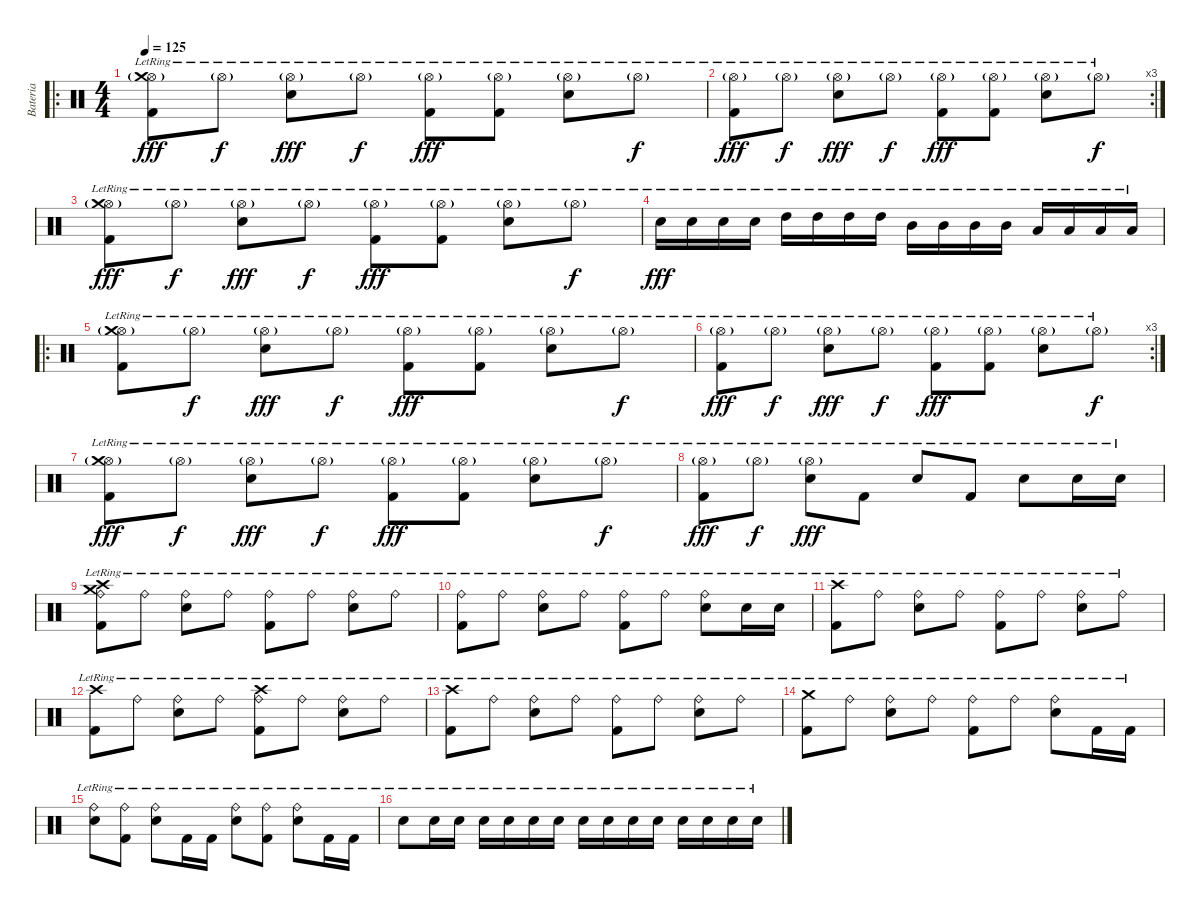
\track ("Bateria" "Bateria") {instrument percussion}
\staff {score}
\articulation defaults
\ro
\ts (4 4)
\tempo 125
\clef neutral
\ks c
("Hi-Hat (open)"{g lr} "Kick (hit) 2"{lr} "Crash medium (hit)"{lr}).8{dy fff} "Hi-Hat (open)"{g lr}.8{dy f} ("Hi-Hat (open)"{g lr} "Snare (hit) 2"{lr}).8{dy fff} "Hi-Hat (open)"{g lr}.8{dy f} ("Hi-Hat (open)"{g lr} "Kick (hit) 2"{lr}).8{dy fff} ("Hi-Hat (open)"{g lr} "Kick (hit) 2"{lr}).8 ("Hi-Hat (open)"{g lr} "Snare (hit) 2"{lr}).8 "Hi-Hat (open)"{g lr}.8{dy f} |
\rc 3
("Hi-Hat (open)"{g lr} "Kick (hit) 2"{lr}).8{dy fff} "Hi-Hat (open)"{g lr}.8{dy f} ("Hi-Hat (open)"{g lr} "Snare (hit) 2"{lr}).8{dy fff} "Hi-Hat (open)"{g lr}.8{dy f} ("Hi-Hat (open)"{g lr} "Kick (hit) 2"{lr}).8{dy fff} ("Hi-Hat (open)"{g lr} "Kick (hit) 2"{lr}).8 ("Hi-Hat (open)"{g lr} "Snare (hit) 2"{lr}).8 "Hi-Hat (open)"{g lr}.8{dy f} |
("Hi-Hat (open)"{g lr} "Kick (hit) 2"{lr} "Crash medium (hit)"{lr}).8{dy fff} "Hi-Hat (open)"{g lr}.8{dy f} ("Hi-Hat (open)"{g lr} "Snare (hit) 2"{lr}).8{dy fff} "Hi-Hat (open)"{g lr}.8{dy f} ("Hi-Hat (open)"{g lr} "Kick (hit) 2"{lr}).8{dy fff} ("Hi-Hat (open)"{g lr} "Kick (hit) 2"{lr}).8 ("Hi-Hat (open)"{g lr} "Snare (hit) 2"{lr}).8 "Hi-Hat (open)"{g lr}.8{dy f} |
"Snare (hit) 2"{lr}.16{dy fff} "Snare (hit) 2"{lr}.16 "Snare (hit) 2"{lr}.16 "Snare (hit) 2"{lr}.16 "High Tom (hit)"{lr}.16 "High Tom (hit)"{lr}.16 "High Tom (hit)"{lr}.16 "High Tom (hit)"{lr}.16 "Mid Tom (hit)"{lr}.16 "Mid Tom (hit)"{lr}.16 "Mid Tom (hit)"{lr}.16 "Mid Tom (hit)"{lr}.16 "Low Tom (hit)"{lr}.16 "Low Tom (hit)"{lr}.16 "Low Tom (hit)"{lr}.16 "Low Tom (hit)"{lr}.16 |
\ro
("Hi-Hat (open)"{g lr} "Kick (hit) 2"{lr} "Crash medium (hit)"{lr}).8 "Hi-Hat (open)"{g lr}.8{dy f} ("Hi-Hat (open)"{g lr} "Snare (hit) 2"{lr}).8{dy fff} "Hi-Hat (open)"{g lr}.8{dy f} ("Hi-Hat (open)"{g lr} "Kick (hit) 2"{lr}).8{dy fff} ("Hi-Hat (open)"{g lr} "Kick (hit) 2"{lr}).8 ("Hi-Hat (open)"{g lr} "Snare (hit) 2"{lr}).8 "Hi-Hat (open)"{g lr}.8{dy f} |
\rc 3
("Hi-Hat (open)"{g lr} "Kick (hit) 2"{lr}).8{dy fff} "Hi-Hat (open)"{g lr}.8{dy f} ("Hi-Hat (open)"{g lr} "Snare (hit) 2"{lr}).8{dy fff} "Hi-Hat (open)"{g lr}.8{dy f} ("Hi-Hat (open)"{g lr} "Kick (hit) 2"{lr}).8{dy fff} ("Hi-Hat (open)"{g lr} "Kick (hit) 2"{lr}).8 ("Hi-Hat (open)"{g lr} "Snare (hit) 2"{lr}).8 "Hi-Hat (open)"{g lr}.8{dy f} |
("Hi-Hat (open)"{g lr} "Kick (hit) 2"{lr} "Crash medium (hit)"{lr}).8{dy fff} "Hi-Hat (open)"{g lr}.8{dy f} ("Hi-Hat (open)"{g lr} "Snare (hit) 2"{lr}).8{dy fff} "Hi-Hat (open)"{g lr}.8{dy f} ("Hi-Hat (open)"{g lr} "Kick (hit) 2"{lr}).8{dy fff} ("Hi-Hat (open)"{g lr} "Kick (hit) 2"{lr}).8 ("Hi-Hat (open)"{g lr} "Snare (hit) 2"{lr}).8 "Hi-Hat (open)"{g lr}.8{dy f} |
("Hi-Hat (open)"{g lr} "Kick (hit) 2"{lr}).8{dy fff} "Hi-Hat (open)"{g lr}.8{dy f} ("Hi-Hat (open)"{g lr} "Snare (hit) 2"{lr}).8{dy fff} "Kick (hit) 2"{lr}.8 "Snare (hit) 2"{lr}.8 "Kick (hit) 2"{lr}.8 "Snare (hit) 2"{lr}.8 "Snare (hit) 2"{lr}.16 "Snare (hit) 2"{lr}.16 |
("Ride (bell)"{lr} "Kick (hit) 2"{lr} "Crash medium (hit)"{lr} "Crash high (hit)"{lr}).8 "Ride (bell)"{lr}.8 ("Ride (bell)"{lr} "Snare (hit) 2"{lr}).8 "Ride (bell)"{lr}.8 ("Ride (bell)"{lr} "Kick (hit) 2"{lr}).8 "Ride (bell)"{lr}.8 ("Ride (bell)"{lr} "Snare (hit) 2"{lr}).8 "Ride (bell)"{lr}.8 |
("Ride (bell)"{lr} "Kick (hit) 2"{lr}).8 "Ride (bell)"{lr}.8 ("Ride (bell)"{lr} "Snare (hit) 2"{lr}).8 "Ride (bell)"{lr}.8 ("Ride (bell)"{lr} "Kick (hit) 2"{lr}).8 "Ride (bell)"{lr}.8 ("Ride (bell)"{lr} "Snare (hit) 2"{lr}).8 "Snare (hit) 2"{lr}.16 "Snare (hit) 2"{lr}.16 |
("Crash high (hit)"{lr} "Kick (hit) 2"{lr}).8 "Ride (bell)"{lr}.8 ("Ride (bell)"{lr} "Snare (hit) 2"{lr}).8 "Ride (bell)"{lr}.8 ("Ride (bell)"{lr} "Kick (hit) 2"{lr}).8 "Ride (bell)"{lr}.8 ("Ride (bell)"{lr} "Snare (hit) 2"{lr}).8 "Ride (bell)"{lr}.8 |
("Crash high (hit)"{lr} "Kick (hit) 2"{lr}).8 "Ride (bell)"{lr}.8 ("Ride (bell)"{lr} "Snare (hit) 2"{lr}).8 "Ride (bell)"{lr}.8 ("Ride (bell)"{lr} "Kick (hit) 2"{lr} "Crash high (hit)"{lr}).8 "Ride (bell)"{lr}.8 ("Ride (bell)"{lr} "Snare (hit) 2"{lr}).8 "Ride (bell)"{lr}.8 |
("Crash high (hit)"{lr} "Kick (hit) 2"{lr}).8 "Ride (bell)"{lr}.8 ("Ride (bell)"{lr} "Snare (hit) 2"{lr}).8 "Ride (bell)"{lr}.8 ("Ride (bell)"{lr} "Kick (hit) 2"{lr}).8 "Ride (bell)"{lr}.8 ("Ride (bell)"{lr} "Snare (hit) 2"{lr}).8 "Ride (bell)"{lr}.8 |
("Crash medium (hit)"{lr} "Kick (hit) 2"{lr}).8 "Ride (bell)"{lr}.8 ("Ride (bell)"{lr} "Snare (hit) 2"{lr}).8 "Ride (bell)"{lr}.8 ("Ride (bell)"{lr} "Kick (hit) 2"{lr}).8 "Ride (bell)"{lr}.8 ("Ride (bell)"{lr} "Snare (hit) 2"{lr}).8 "Kick (hit) 2"{lr}.16 "Kick (hit) 2"{lr}.16 |
("Snare (hit) 2"{lr} "Ride (bell)"{lr}).8 ("Kick (hit) 2"{lr} "Ride (bell)"{lr}).8 ("Snare (hit) 2"{lr} "Ride (bell)"{lr}).8 "Kick (hit) 2"{lr}.16 "Kick (hit) 2"{lr}.16 ("Snare (hit) 2"{lr} "Ride (bell)"{lr}).8 ("Kick (hit) 2"{lr} "Ride (bell)"{lr}).8 ("Snare (hit) 2"{lr} "Ride (bell)"{lr}).8 "Kick (hit) 2"{lr}.16 "Kick (hit) 2"{lr}.16 |
"Snare (hit) 2"{lr}.8 "Snare (hit) 2"{lr}.16 "Snare (hit) 2"{lr}.16 "Snare (hit) 2"{lr}.16 "Snare (hit) 2"{lr}.16 "Snare (hit) 2"{lr}.16 "Snare (hit) 2"{lr}.16 "Snare (hit) 2"{lr}.16 "Snare (hit) 2"{lr}.16 "Snare (hit) 2"{lr}.16 "Snare (hit) 2"{lr}.16 "Snare (hit) 2"{lr}.16 "Snare (hit) 2"{lr}.16 "Snare (hit) 2"{lr}.16 "Snare (hit) 2"{lr}.16
